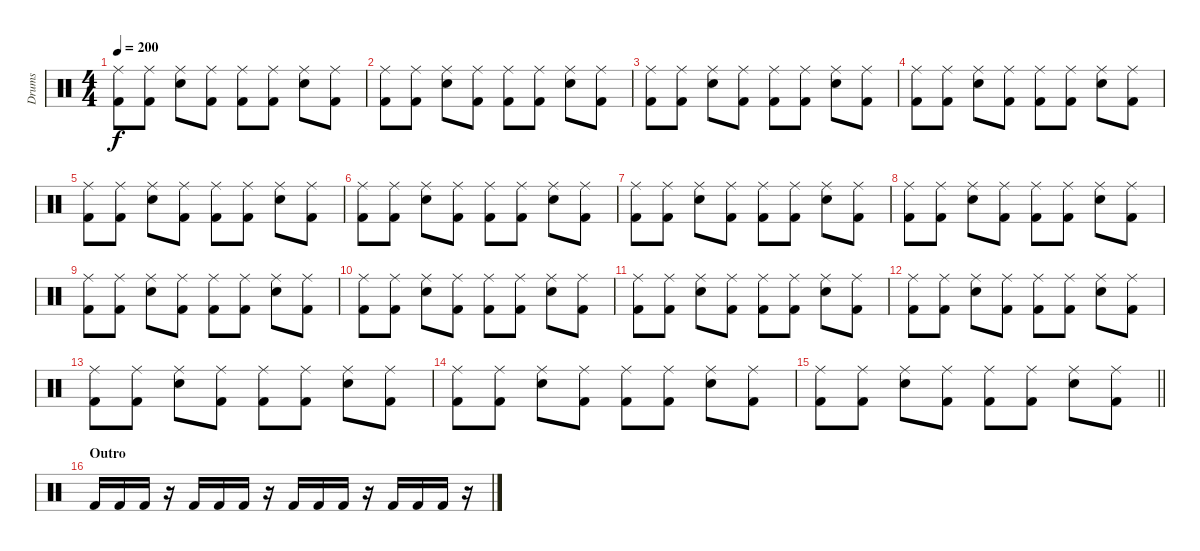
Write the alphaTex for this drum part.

\track ("Drums" "Drums") {instrument percussion}
\staff {score}
\articulation defaults
\ts (4 4)
\tempo 200
\clef neutral
\ks c
("Ride (middle)" "Kick (hit) 2").8{dy f} ("Ride (middle)" "Kick (hit) 2").8 ("Ride (middle)" "Electric Snare (hit)").8 ("Ride (middle)" "Kick (hit) 2").8 ("Ride (middle)" "Kick (hit) 2").8 ("Ride (middle)" "Kick (hit) 2").8 ("Ride (middle)" "Electric Snare (hit)").8 ("Ride (middle)" "Kick (hit) 2").8 |
("Ride (middle)" "Kick (hit) 2").8 ("Ride (middle)" "Kick (hit) 2").8 ("Ride (middle)" "Electric Snare (hit)").8 ("Ride (middle)" "Kick (hit) 2").8 ("Ride (middle)" "Kick (hit) 2").8 ("Ride (middle)" "Kick (hit) 2").8 ("Ride (middle)" "Electric Snare (hit)").8 ("Ride (middle)" "Kick (hit) 2").8 |
("Ride (middle)" "Kick (hit) 2").8 ("Ride (middle)" "Kick (hit) 2").8 ("Ride (middle)" "Electric Snare (hit)").8 ("Ride (middle)" "Kick (hit) 2").8 ("Ride (middle)" "Kick (hit) 2").8 ("Ride (middle)" "Kick (hit) 2").8 ("Ride (middle)" "Electric Snare (hit)").8 ("Ride (middle)" "Kick (hit) 2").8 |
("Ride (middle)" "Kick (hit) 2").8 ("Ride (middle)" "Kick (hit) 2").8 ("Ride (middle)" "Electric Snare (hit)").8 ("Ride (middle)" "Kick (hit) 2").8 ("Ride (middle)" "Kick (hit) 2").8 ("Ride (middle)" "Kick (hit) 2").8 ("Ride (middle)" "Electric Snare (hit)").8 ("Ride (middle)" "Kick (hit) 2").8 |
("Ride (middle)" "Kick (hit) 2").8 ("Ride (middle)" "Kick (hit) 2").8 ("Ride (middle)" "Electric Snare (hit)").8 ("Ride (middle)" "Kick (hit) 2").8 ("Ride (middle)" "Kick (hit) 2").8 ("Ride (middle)" "Kick (hit) 2").8 ("Ride (middle)" "Electric Snare (hit)").8 ("Ride (middle)" "Kick (hit) 2").8 |
("Ride (middle)" "Kick (hit) 2").8 ("Ride (middle)" "Kick (hit) 2").8 ("Ride (middle)" "Electric Snare (hit)").8 ("Ride (middle)" "Kick (hit) 2").8 ("Ride (middle)" "Kick (hit) 2").8 ("Ride (middle)" "Kick (hit) 2").8 ("Ride (middle)" "Electric Snare (hit)").8 ("Ride (middle)" "Kick (hit) 2").8 |
("Ride (middle)" "Kick (hit) 2").8 ("Ride (middle)" "Kick (hit) 2").8 ("Ride (middle)" "Electric Snare (hit)").8 ("Ride (middle)" "Kick (hit) 2").8 ("Ride (middle)" "Kick (hit) 2").8 ("Ride (middle)" "Kick (hit) 2").8 ("Ride (middle)" "Electric Snare (hit)").8 ("Ride (middle)" "Kick (hit) 2").8 |
("Ride (middle)" "Kick (hit) 2").8 ("Ride (middle)" "Kick (hit) 2").8 ("Ride (middle)" "Electric Snare (hit)").8 ("Ride (middle)" "Kick (hit) 2").8 ("Ride (middle)" "Kick (hit) 2").8 ("Ride (middle)" "Kick (hit) 2").8 ("Ride (middle)" "Electric Snare (hit)").8 ("Ride (middle)" "Kick (hit) 2").8 |
("Ride (middle)" "Kick (hit) 2").8 ("Ride (middle)" "Kick (hit) 2").8 ("Ride (middle)" "Electric Snare (hit)").8 ("Ride (middle)" "Kick (hit) 2").8 ("Ride (middle)" "Kick (hit) 2").8 ("Ride (middle)" "Kick (hit) 2").8 ("Ride (middle)" "Electric Snare (hit)").8 ("Ride (middle)" "Kick (hit) 2").8 |
("Ride (middle)" "Kick (hit) 2").8 ("Ride (middle)" "Kick (hit) 2").8 ("Ride (middle)" "Electric Snare (hit)").8 ("Ride (middle)" "Kick (hit) 2").8 ("Ride (middle)" "Kick (hit) 2").8 ("Ride (middle)" "Kick (hit) 2").8 ("Ride (middle)" "Electric Snare (hit)").8 ("Ride (middle)" "Kick (hit) 2").8 |
("Ride (middle)" "Kick (hit) 2").8 ("Ride (middle)" "Kick (hit) 2").8 ("Ride (middle)" "Electric Snare (hit)").8 ("Ride (middle)" "Kick (hit) 2").8 ("Ride (middle)" "Kick (hit) 2").8 ("Ride (middle)" "Kick (hit) 2").8 ("Ride (middle)" "Electric Snare (hit)").8 ("Ride (middle)" "Kick (hit) 2").8 |
("Ride (middle)" "Kick (hit) 2").8 ("Ride (middle)" "Kick (hit) 2").8 ("Ride (middle)" "Electric Snare (hit)").8 ("Ride (middle)" "Kick (hit) 2").8 ("Ride (middle)" "Kick (hit) 2").8 ("Ride (middle)" "Kick (hit) 2").8 ("Ride (middle)" "Electric Snare (hit)").8 ("Ride (middle)" "Kick (hit) 2").8 |
("Ride (middle)" "Kick (hit) 2").8 ("Ride (middle)" "Kick (hit) 2").8 ("Ride (middle)" "Electric Snare (hit)").8 ("Ride (middle)" "Kick (hit) 2").8 ("Ride (middle)" "Kick (hit) 2").8 ("Ride (middle)" "Kick (hit) 2").8 ("Ride (middle)" "Electric Snare (hit)").8 ("Ride (middle)" "Kick (hit) 2").8 |
("Ride (middle)" "Kick (hit) 2").8 ("Ride (middle)" "Kick (hit) 2").8 ("Ride (middle)" "Electric Snare (hit)").8 ("Ride (middle)" "Kick (hit) 2").8 ("Ride (middle)" "Kick (hit) 2").8 ("Ride (middle)" "Kick (hit) 2").8 ("Ride (middle)" "Electric Snare (hit)").8 ("Ride (middle)" "Kick (hit) 2").8 |
\barLineRight lightlight
("Ride (middle)" "Kick (hit) 2").8 ("Ride (middle)" "Kick (hit) 2").8 ("Ride (middle)" "Electric Snare (hit)").8 ("Ride (middle)" "Kick (hit) 2").8 ("Ride (middle)" "Kick (hit) 2").8 ("Ride (middle)" "Kick (hit) 2").8 ("Ride (middle)" "Electric Snare (hit)").8 ("Ride (middle)" "Kick (hit) 2").8 |
\section ("" "Outro")
"Kick (hit) 2".16 "Kick (hit) 2".16 "Kick (hit) 2".16 r.16 "Kick (hit) 2".16 "Kick (hit) 2".16 "Kick (hit) 2".16 r.16 "Kick (hit) 2".16 "Kick (hit) 2".16 "Kick (hit) 2".16 r.16 "Kick (hit) 2".16 "Kick (hit) 2".16 "Kick (hit) 2".16 r.16
